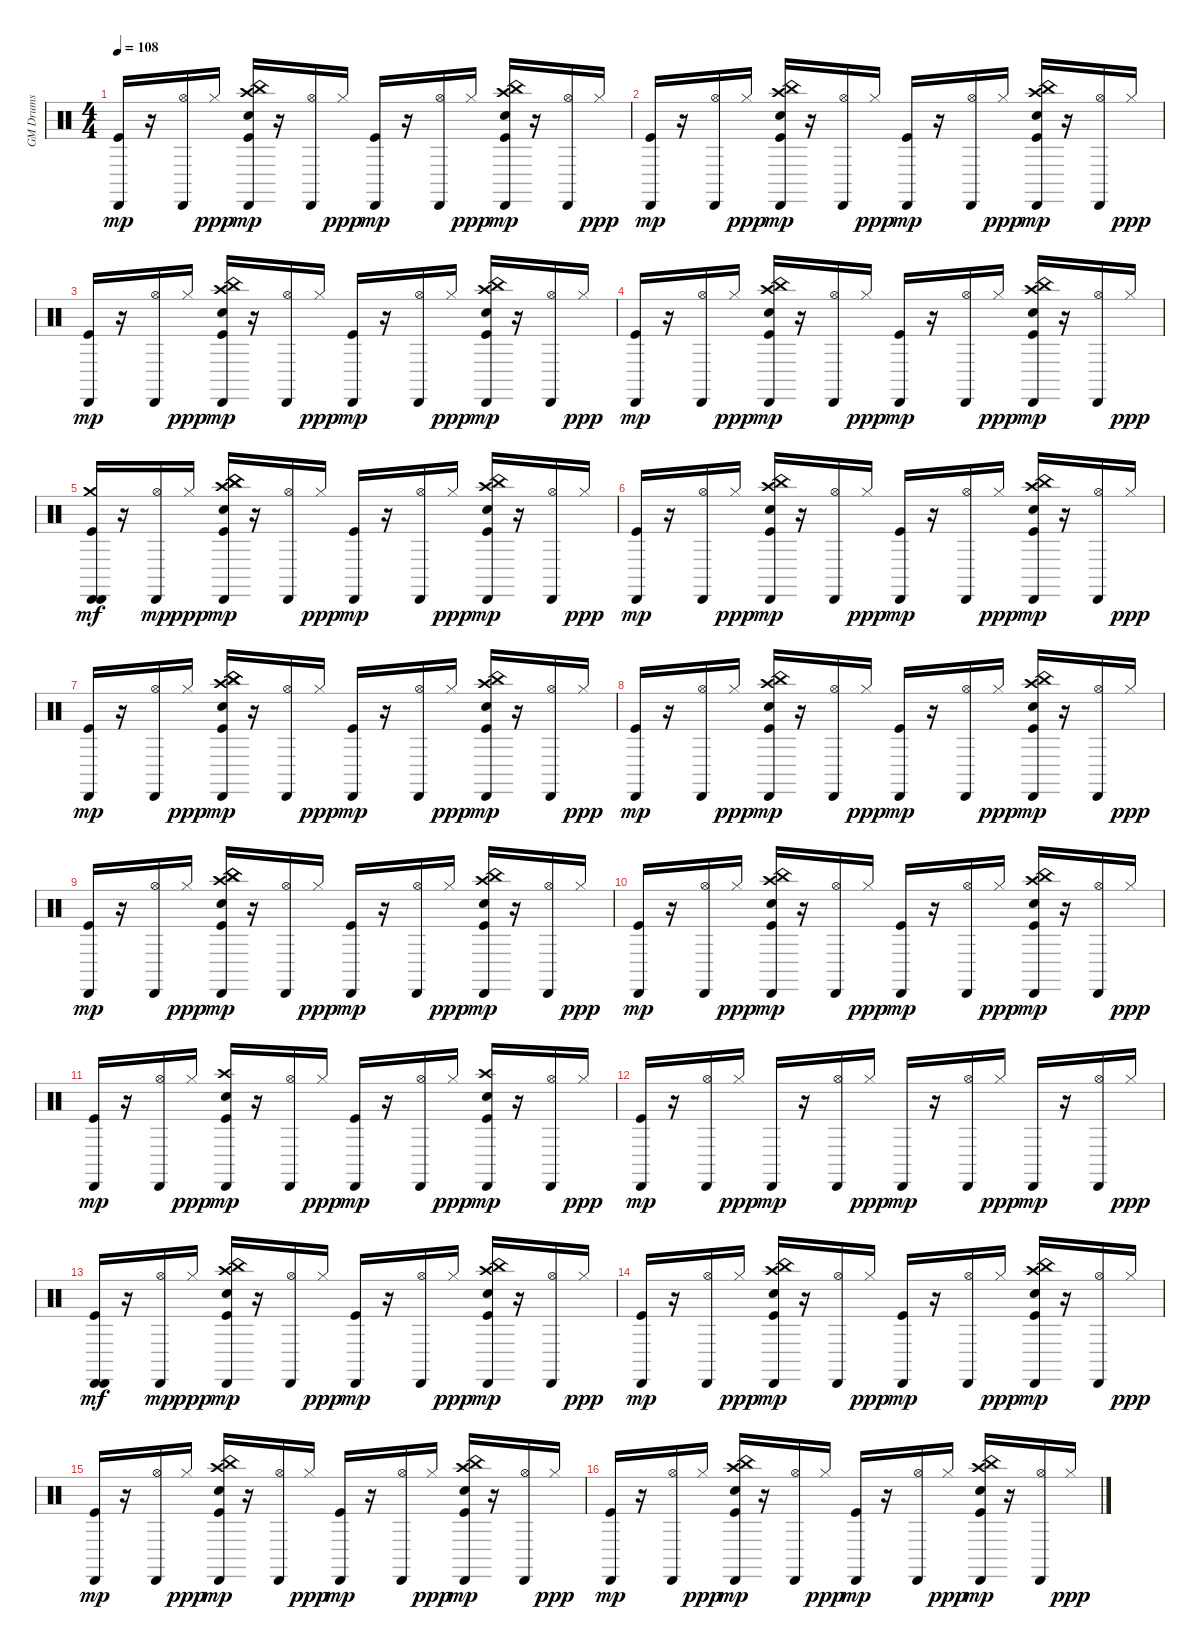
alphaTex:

\track ("GM Drums" "GM Drums") {instrument percussion}
\staff {score}
\articulation defaults
\ts (4 4)
\tempo 108
\clef neutral
\ks c
("Kick (hit)" "Cabasa (hit)").16{dy mp} r.16 ("Hi-Hat (open)" "Cabasa (hit)").16 "Hi-Hat (closed)".16{dy ppp} ("Kick (hit)" "Electric Snare (hit)" "Crash high (hit)" "China (hit)" "Cabasa (hit)").16{dy mp} r.16 ("Hi-Hat (open)" "Cabasa (hit)").16 "Hi-Hat (closed)".16{dy ppp} ("Kick (hit)" "Cabasa (hit)").16{dy mp} r.16 ("Hi-Hat (open)" "Cabasa (hit)").16 "Hi-Hat (closed)".16{dy ppp} ("Kick (hit)" "Electric Snare (hit)" "Crash high (hit)" "China (hit)" "Cabasa (hit)").16{dy mp} r.16 ("Hi-Hat (open)" "Cabasa (hit)").16 "Hi-Hat (closed)".16{dy ppp} |
("Kick (hit)" "Cabasa (hit)").16{dy mp} r.16 ("Hi-Hat (open)" "Cabasa (hit)").16 "Hi-Hat (closed)".16{dy ppp} ("Kick (hit)" "Electric Snare (hit)" "Crash high (hit)" "China (hit)" "Cabasa (hit)").16{dy mp} r.16 ("Hi-Hat (open)" "Cabasa (hit)").16 "Hi-Hat (closed)".16{dy ppp} ("Kick (hit)" "Cabasa (hit)").16{dy mp} r.16 ("Hi-Hat (open)" "Cabasa (hit)").16 "Hi-Hat (closed)".16{dy ppp} ("Kick (hit)" "Electric Snare (hit)" "Crash high (hit)" "China (hit)" "Cabasa (hit)").16{dy mp} r.16 ("Hi-Hat (open)" "Cabasa (hit)").16 "Hi-Hat (closed)".16{dy ppp} |
("Kick (hit)" "Cabasa (hit)").16{dy mp} r.16 ("Hi-Hat (open)" "Cabasa (hit)").16 "Hi-Hat (closed)".16{dy ppp} ("Kick (hit)" "Electric Snare (hit)" "Crash high (hit)" "China (hit)" "Cabasa (hit)").16{dy mp} r.16 ("Hi-Hat (open)" "Cabasa (hit)").16 "Hi-Hat (closed)".16{dy ppp} ("Kick (hit)" "Cabasa (hit)").16{dy mp} r.16 ("Hi-Hat (open)" "Cabasa (hit)").16 "Hi-Hat (closed)".16{dy ppp} ("Kick (hit)" "Electric Snare (hit)" "Crash high (hit)" "China (hit)" "Cabasa (hit)").16{dy mp} r.16 ("Hi-Hat (open)" "Cabasa (hit)").16 "Hi-Hat (closed)".16{dy ppp} |
("Kick (hit)" "Cabasa (hit)").16{dy mp} r.16 ("Hi-Hat (open)" "Cabasa (hit)").16 "Hi-Hat (closed)".16{dy ppp} ("Kick (hit)" "Electric Snare (hit)" "Crash high (hit)" "China (hit)" "Cabasa (hit)").16{dy mp} r.16 ("Hi-Hat (open)" "Cabasa (hit)").16 "Hi-Hat (closed)".16{dy ppp} ("Kick (hit)" "Cabasa (hit)").16{dy mp} r.16 ("Hi-Hat (open)" "Cabasa (hit)").16 "Hi-Hat (closed)".16{dy ppp} ("Kick (hit)" "Electric Snare (hit)" "Crash high (hit)" "China (hit)" "Cabasa (hit)").16{dy mp} r.16 ("Hi-Hat (open)" "Cabasa (hit)").16 "Hi-Hat (closed)".16{dy ppp} |
("Kick (hit)" "Crash medium (hit)" "Cabasa (hit)" "Cabasa (hit)").16{dy mf} r.16 ("Hi-Hat (open)" "Cabasa (hit)").16{dy mp} "Hi-Hat (closed)".16{dy ppp} ("Kick (hit)" "Electric Snare (hit)" "Crash high (hit)" "China (hit)" "China (hit)" "Cabasa (hit)").16{dy mp} r.16 ("Hi-Hat (open)" "Cabasa (hit)").16 "Hi-Hat (closed)".16{dy ppp} ("Kick (hit)" "Cabasa (hit)").16{dy mp} r.16 ("Hi-Hat (open)" "Cabasa (hit)").16 "Hi-Hat (closed)".16{dy ppp} ("Kick (hit)" "Electric Snare (hit)" "Crash high (hit)" "China (hit)" "Cabasa (hit)").16{dy mp} r.16 ("Hi-Hat (open)" "Cabasa (hit)").16 "Hi-Hat (closed)".16{dy ppp} |
("Kick (hit)" "Cabasa (hit)").16{dy mp} r.16 ("Hi-Hat (open)" "Cabasa (hit)").16 "Hi-Hat (closed)".16{dy ppp} ("Kick (hit)" "Electric Snare (hit)" "Crash high (hit)" "China (hit)" "Cabasa (hit)").16{dy mp} r.16 ("Hi-Hat (open)" "Cabasa (hit)").16 "Hi-Hat (closed)".16{dy ppp} ("Kick (hit)" "Cabasa (hit)").16{dy mp} r.16 ("Hi-Hat (open)" "Cabasa (hit)").16 "Hi-Hat (closed)".16{dy ppp} ("Kick (hit)" "Electric Snare (hit)" "Crash high (hit)" "China (hit)" "Cabasa (hit)").16{dy mp} r.16 ("Hi-Hat (open)" "Cabasa (hit)").16 "Hi-Hat (closed)".16{dy ppp} |
("Kick (hit)" "Cabasa (hit)").16{dy mp} r.16 ("Hi-Hat (open)" "Cabasa (hit)").16 "Hi-Hat (closed)".16{dy ppp} ("Kick (hit)" "Electric Snare (hit)" "Crash high (hit)" "China (hit)" "China (hit)" "Cabasa (hit)").16{dy mp} r.16 ("Hi-Hat (open)" "Cabasa (hit)").16 "Hi-Hat (closed)".16{dy ppp} ("Kick (hit)" "Cabasa (hit)").16{dy mp} r.16 ("Hi-Hat (open)" "Cabasa (hit)").16 "Hi-Hat (closed)".16{dy ppp} ("Kick (hit)" "Electric Snare (hit)" "Crash high (hit)" "China (hit)" "Cabasa (hit)").16{dy mp} r.16 ("Hi-Hat (open)" "Cabasa (hit)").16 "Hi-Hat (closed)".16{dy ppp} |
("Kick (hit)" "Cabasa (hit)").16{dy mp} r.16 ("Hi-Hat (open)" "Cabasa (hit)").16 "Hi-Hat (closed)".16{dy ppp} ("Kick (hit)" "Electric Snare (hit)" "Crash high (hit)" "China (hit)" "Cabasa (hit)").16{dy mp} r.16 ("Hi-Hat (open)" "Cabasa (hit)").16 "Hi-Hat (closed)".16{dy ppp} ("Kick (hit)" "Cabasa (hit)").16{dy mp} r.16 ("Hi-Hat (open)" "Cabasa (hit)").16 "Hi-Hat (closed)".16{dy ppp} ("Kick (hit)" "Electric Snare (hit)" "Crash high (hit)" "China (hit)" "Cabasa (hit)").16{dy mp} r.16 ("Hi-Hat (open)" "Cabasa (hit)").16 "Hi-Hat (closed)".16{dy ppp} |
("Kick (hit)" "Cabasa (hit)").16{dy mp} r.16 ("Hi-Hat (open)" "Cabasa (hit)").16 "Hi-Hat (closed)".16{dy ppp} ("Kick (hit)" "Electric Snare (hit)" "Crash high (hit)" "China (hit)" "China (hit)" "Cabasa (hit)").16{dy mp} r.16 ("Hi-Hat (open)" "Cabasa (hit)").16 "Hi-Hat (closed)".16{dy ppp} ("Kick (hit)" "Cabasa (hit)").16{dy mp} r.16 ("Hi-Hat (open)" "Cabasa (hit)").16 "Hi-Hat (closed)".16{dy ppp} ("Kick (hit)" "Electric Snare (hit)" "Crash high (hit)" "China (hit)" "Cabasa (hit)").16{dy mp} r.16 ("Hi-Hat (open)" "Cabasa (hit)").16 "Hi-Hat (closed)".16{dy ppp} |
("Kick (hit)" "Cabasa (hit)").16{dy mp} r.16 ("Hi-Hat (open)" "Cabasa (hit)").16 "Hi-Hat (closed)".16{dy ppp} ("Kick (hit)" "Electric Snare (hit)" "Crash high (hit)" "China (hit)" "Cabasa (hit)").16{dy mp} r.16 ("Hi-Hat (open)" "Cabasa (hit)").16 "Hi-Hat (closed)".16{dy ppp} ("Kick (hit)" "Cabasa (hit)").16{dy mp} r.16 ("Hi-Hat (open)" "Cabasa (hit)").16 "Hi-Hat (closed)".16{dy ppp} ("Kick (hit)" "Electric Snare (hit)" "Crash high (hit)" "China (hit)" "Cabasa (hit)").16{dy mp} r.16 ("Hi-Hat (open)" "Cabasa (hit)").16 "Hi-Hat (closed)".16{dy ppp} |
("Kick (hit)" "Cabasa (hit)").16{dy mp} r.16 ("Hi-Hat (open)" "Cabasa (hit)").16 "Hi-Hat (closed)".16{dy ppp} ("Kick (hit)" "Electric Snare (hit)" "Crash high (hit)" "Cabasa (hit)").16{dy mp} r.16 ("Hi-Hat (open)" "Cabasa (hit)").16 "Hi-Hat (closed)".16{dy ppp} ("Kick (hit)" "Cabasa (hit)").16{dy mp} r.16 ("Hi-Hat (open)" "Cabasa (hit)").16 "Hi-Hat (closed)".16{dy ppp} ("Kick (hit)" "Electric Snare (hit)" "Crash high (hit)" "Cabasa (hit)").16{dy mp} r.16 ("Hi-Hat (open)" "Cabasa (hit)").16 "Hi-Hat (closed)".16{dy ppp} |
("Kick (hit)" "Cabasa (hit)").16{dy mp} r.16 ("Hi-Hat (open)" "Cabasa (hit)").16 "Hi-Hat (closed)".16{dy ppp} "Cabasa (hit)".16{dy mp} r.16 ("Hi-Hat (open)" "Cabasa (hit)").16 "Hi-Hat (closed)".16{dy ppp} "Cabasa (hit)".16{dy mp} r.16 ("Hi-Hat (open)" "Cabasa (hit)").16 "Hi-Hat (closed)".16{dy ppp} "Cabasa (hit)".16{dy mp} r.16 ("Hi-Hat (open)" "Cabasa (hit)").16 "Hi-Hat (closed)".16{dy ppp} |
("Kick (hit)" "Cabasa (hit)" "Cabasa (hit)").16{dy mf} r.16 ("Hi-Hat (open)" "Cabasa (hit)").16{dy mp} "Hi-Hat (closed)".16{dy ppp} ("Kick (hit)" "Electric Snare (hit)" "Crash high (hit)" "China (hit)" "Cabasa (hit)").16{dy mp} r.16 ("Hi-Hat (open)" "Cabasa (hit)").16 "Hi-Hat (closed)".16{dy ppp} ("Kick (hit)" "Cabasa (hit)").16{dy mp} r.16 ("Hi-Hat (open)" "Cabasa (hit)").16 "Hi-Hat (closed)".16{dy ppp} ("Kick (hit)" "Electric Snare (hit)" "Crash high (hit)" "China (hit)" "Cabasa (hit)").16{dy mp} r.16 ("Hi-Hat (open)" "Cabasa (hit)").16 "Hi-Hat (closed)".16{dy ppp} |
("Kick (hit)" "Cabasa (hit)").16{dy mp} r.16 ("Hi-Hat (open)" "Cabasa (hit)").16 "Hi-Hat (closed)".16{dy ppp} ("Kick (hit)" "Electric Snare (hit)" "Crash high (hit)" "China (hit)" "Cabasa (hit)").16{dy mp} r.16 ("Hi-Hat (open)" "Cabasa (hit)").16 "Hi-Hat (closed)".16{dy ppp} ("Kick (hit)" "Cabasa (hit)").16{dy mp} r.16 ("Hi-Hat (open)" "Cabasa (hit)").16 "Hi-Hat (closed)".16{dy ppp} ("Kick (hit)" "Electric Snare (hit)" "Crash high (hit)" "China (hit)" "Cabasa (hit)").16{dy mp} r.16 ("Hi-Hat (open)" "Cabasa (hit)").16 "Hi-Hat (closed)".16{dy ppp} |
("Kick (hit)" "Cabasa (hit)").16{dy mp} r.16 ("Hi-Hat (open)" "Cabasa (hit)").16 "Hi-Hat (closed)".16{dy ppp} ("Kick (hit)" "Electric Snare (hit)" "Crash high (hit)" "China (hit)" "Cabasa (hit)").16{dy mp} r.16 ("Hi-Hat (open)" "Cabasa (hit)").16 "Hi-Hat (closed)".16{dy ppp} ("Kick (hit)" "Cabasa (hit)").16{dy mp} r.16 ("Hi-Hat (open)" "Cabasa (hit)").16 "Hi-Hat (closed)".16{dy ppp} ("Kick (hit)" "Electric Snare (hit)" "Crash high (hit)" "China (hit)" "Cabasa (hit)").16{dy mp} r.16 ("Hi-Hat (open)" "Cabasa (hit)").16 "Hi-Hat (closed)".16{dy ppp} |
("Kick (hit)" "Cabasa (hit)").16{dy mp} r.16 ("Hi-Hat (open)" "Cabasa (hit)").16 "Hi-Hat (closed)".16{dy ppp} ("Kick (hit)" "Electric Snare (hit)" "Crash high (hit)" "China (hit)" "Cabasa (hit)").16{dy mp} r.16 ("Hi-Hat (open)" "Cabasa (hit)").16 "Hi-Hat (closed)".16{dy ppp} ("Kick (hit)" "Cabasa (hit)").16{dy mp} r.16 ("Hi-Hat (open)" "Cabasa (hit)").16 "Hi-Hat (closed)".16{dy ppp} ("Kick (hit)" "Electric Snare (hit)" "Crash high (hit)" "China (hit)" "Cabasa (hit)").16{dy mp} r.16 ("Hi-Hat (open)" "Cabasa (hit)").16 "Hi-Hat (closed)".16{dy ppp}
